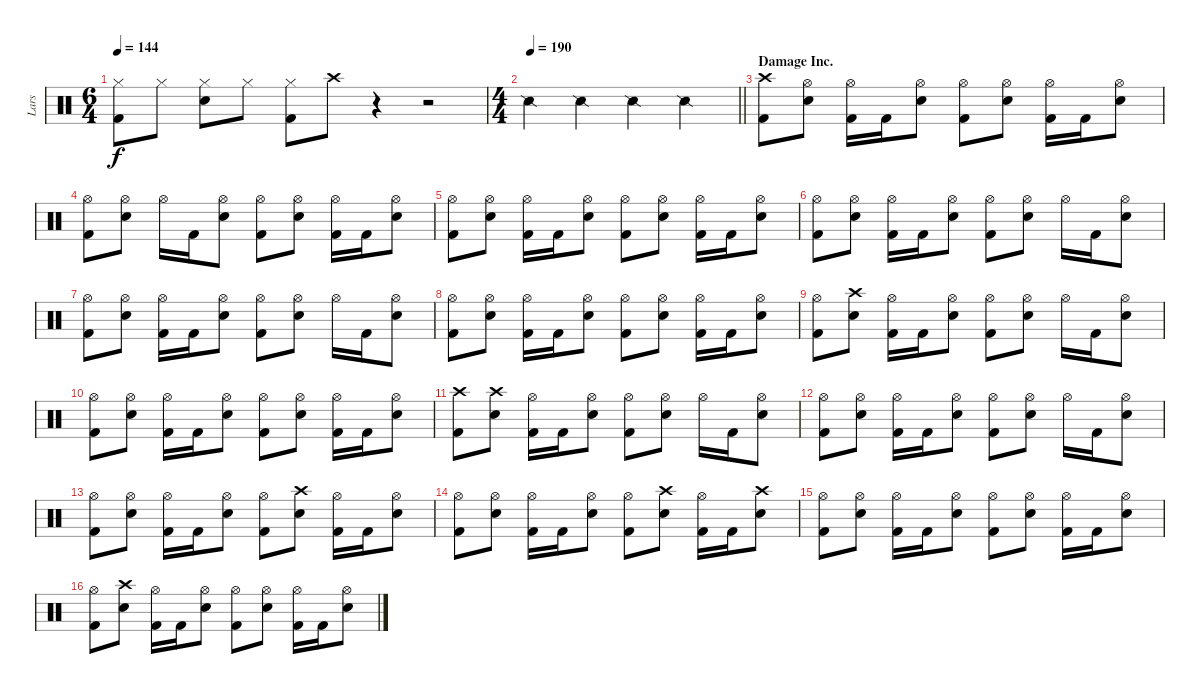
\track ("Lars" "Lars") {instrument percussion}
\staff {score}
\articulation defaults
\ts (6 4)
\tempo 144
\clef neutral
\ks c
("Hi-Hat (closed)" "Kick (hit) 2").8{dy f} "Hi-Hat (closed)".8 ("Hi-Hat (closed)" "Snare (hit) 2").8 "Hi-Hat (closed)".8 ("Hi-Hat (closed)" "Kick (hit) 2").8 "Crash high (hit)".8 r.4 r.2 |
\ts (4 4)
\tempo 190
\barLineRight lightlight "Snare (side stick) 2".4 "Snare (side stick) 2".4 "Snare (side stick) 2".4 "Snare (side stick) 2".4
|
\section ("" "Damage Inc.")
("Crash high (hit)" "Kick (hit) 2").8 ("Hi-Hat (open)" "Snare (hit) 2").8 ("Hi-Hat (open)" "Kick (hit) 2").16 "Kick (hit) 2".16 ("Hi-Hat (open)" "Snare (hit) 2").8 ("Hi-Hat (open)" "Kick (hit) 2").8 ("Hi-Hat (open)" "Snare (hit) 2").8 ("Hi-Hat (open)" "Kick (hit) 2").16 "Kick (hit) 2".16 ("Hi-Hat (open)" "Snare (hit) 2").8 |
("Hi-Hat (open)" "Kick (hit) 2").8 ("Hi-Hat (open)" "Snare (hit) 2").8 "Hi-Hat (open)".16 "Kick (hit) 2".16 ("Hi-Hat (open)" "Snare (hit) 2").8 ("Hi-Hat (open)" "Kick (hit) 2").8 ("Hi-Hat (open)" "Snare (hit) 2").8 ("Hi-Hat (open)" "Kick (hit) 2").16 "Kick (hit) 2".16 ("Hi-Hat (open)" "Snare (hit) 2").8 |
("Hi-Hat (open)" "Kick (hit) 2").8 ("Hi-Hat (open)" "Snare (hit) 2").8 ("Hi-Hat (open)" "Kick (hit) 2").16 "Kick (hit) 2".16 ("Hi-Hat (open)" "Snare (hit) 2").8 ("Hi-Hat (open)" "Kick (hit) 2").8 ("Hi-Hat (open)" "Snare (hit) 2").8 ("Hi-Hat (open)" "Kick (hit) 2").16 "Kick (hit) 2".16 ("Hi-Hat (open)" "Snare (hit) 2").8 |
("Hi-Hat (open)" "Kick (hit) 2").8 ("Hi-Hat (open)" "Snare (hit) 2").8 ("Hi-Hat (open)" "Kick (hit) 2").16 "Kick (hit) 2".16 ("Hi-Hat (open)" "Snare (hit) 2").8 ("Hi-Hat (open)" "Kick (hit) 2").8 ("Hi-Hat (open)" "Snare (hit) 2").8 "Hi-Hat (open)".16 "Kick (hit) 2".16 ("Hi-Hat (open)" "Snare (hit) 2").8 |
("Hi-Hat (open)" "Kick (hit) 2").8 ("Hi-Hat (open)" "Snare (hit) 2").8 ("Hi-Hat (open)" "Kick (hit) 2").16 "Kick (hit) 2".16 ("Hi-Hat (open)" "Snare (hit) 2").8 ("Hi-Hat (open)" "Kick (hit) 2").8 ("Hi-Hat (open)" "Snare (hit) 2").8 "Hi-Hat (open)".16 "Kick (hit) 2".16 ("Hi-Hat (open)" "Snare (hit) 2").8 |
("Hi-Hat (open)" "Kick (hit) 2").8 ("Hi-Hat (open)" "Snare (hit) 2").8 ("Hi-Hat (open)" "Kick (hit) 2").16 "Kick (hit) 2".16 ("Hi-Hat (open)" "Snare (hit) 2").8 ("Hi-Hat (open)" "Kick (hit) 2").8 ("Hi-Hat (open)" "Snare (hit) 2").8 ("Hi-Hat (open)" "Kick (hit) 2").16 "Kick (hit) 2".16 ("Hi-Hat (open)" "Snare (hit) 2").8 |
("Hi-Hat (open)" "Kick (hit) 2").8 ("Crash high (hit)" "Snare (hit) 2").8 ("Hi-Hat (open)" "Kick (hit) 2").16 "Kick (hit) 2".16 ("Hi-Hat (open)" "Snare (hit) 2").8 ("Hi-Hat (open)" "Kick (hit) 2").8 ("Hi-Hat (open)" "Snare (hit) 2").8 "Hi-Hat (open)".16 "Kick (hit) 2".16 ("Hi-Hat (open)" "Snare (hit) 2").8 |
("Hi-Hat (open)" "Kick (hit) 2").8 ("Hi-Hat (open)" "Snare (hit) 2").8 ("Hi-Hat (open)" "Kick (hit) 2").16 "Kick (hit) 2".16 ("Hi-Hat (open)" "Snare (hit) 2").8 ("Hi-Hat (open)" "Kick (hit) 2").8 ("Hi-Hat (open)" "Snare (hit) 2").8 ("Hi-Hat (open)" "Kick (hit) 2").16 "Kick (hit) 2".16 ("Hi-Hat (open)" "Snare (hit) 2").8 |
("Crash high (hit)" "Kick (hit) 2").8 ("Crash high (hit)" "Snare (hit) 2").8 ("Hi-Hat (open)" "Kick (hit) 2").16 "Kick (hit) 2".16 ("Hi-Hat (open)" "Snare (hit) 2").8 ("Hi-Hat (open)" "Kick (hit) 2").8 ("Hi-Hat (open)" "Snare (hit) 2").8 "Hi-Hat (open)".16 "Kick (hit) 2".16 ("Hi-Hat (open)" "Snare (hit) 2").8 |
("Hi-Hat (open)" "Kick (hit) 2").8 ("Hi-Hat (open)" "Snare (hit) 2").8 ("Hi-Hat (open)" "Kick (hit) 2").16 "Kick (hit) 2".16 ("Hi-Hat (open)" "Snare (hit) 2").8 ("Hi-Hat (open)" "Kick (hit) 2").8 ("Hi-Hat (open)" "Snare (hit) 2").8 "Hi-Hat (open)".16 "Kick (hit) 2".16 ("Hi-Hat (open)" "Snare (hit) 2").8 |
("Hi-Hat (open)" "Kick (hit) 2").8 ("Hi-Hat (open)" "Snare (hit) 2").8 ("Hi-Hat (open)" "Kick (hit) 2").16 "Kick (hit) 2".16 ("Hi-Hat (open)" "Snare (hit) 2").8 ("Hi-Hat (open)" "Kick (hit) 2").8 ("Crash high (hit)" "Snare (hit) 2").8 ("Hi-Hat (open)" "Kick (hit) 2").16 "Kick (hit) 2".16 ("Hi-Hat (open)" "Snare (hit) 2").8 |
("Hi-Hat (open)" "Kick (hit) 2").8 ("Hi-Hat (open)" "Snare (hit) 2").8 ("Hi-Hat (open)" "Kick (hit) 2").16 "Kick (hit) 2".16 ("Hi-Hat (open)" "Snare (hit) 2").8 ("Hi-Hat (open)" "Kick (hit) 2").8 ("Crash high (hit)" "Snare (hit) 2").8 ("Hi-Hat (open)" "Kick (hit) 2").16 "Kick (hit) 2".16 ("Crash high (hit)" "Snare (hit) 2").8 |
("Hi-Hat (open)" "Kick (hit) 2").8 ("Hi-Hat (open)" "Snare (hit) 2").8 ("Hi-Hat (open)" "Kick (hit) 2").16 "Kick (hit) 2".16 ("Hi-Hat (open)" "Snare (hit) 2").8 ("Hi-Hat (open)" "Kick (hit) 2").8 ("Hi-Hat (open)" "Snare (hit) 2").8 ("Hi-Hat (open)" "Kick (hit) 2").16 "Kick (hit) 2".16 ("Hi-Hat (open)" "Snare (hit) 2").8 |
("Hi-Hat (open)" "Kick (hit) 2").8 ("Crash high (hit)" "Snare (hit) 2").8 ("Hi-Hat (open)" "Kick (hit) 2").16 "Kick (hit) 2".16 ("Hi-Hat (open)" "Snare (hit) 2").8 ("Hi-Hat (open)" "Kick (hit) 2").8 ("Hi-Hat (open)" "Snare (hit) 2").8 ("Hi-Hat (open)" "Kick (hit) 2").16 "Kick (hit) 2".16 ("Hi-Hat (open)" "Snare (hit) 2").8
